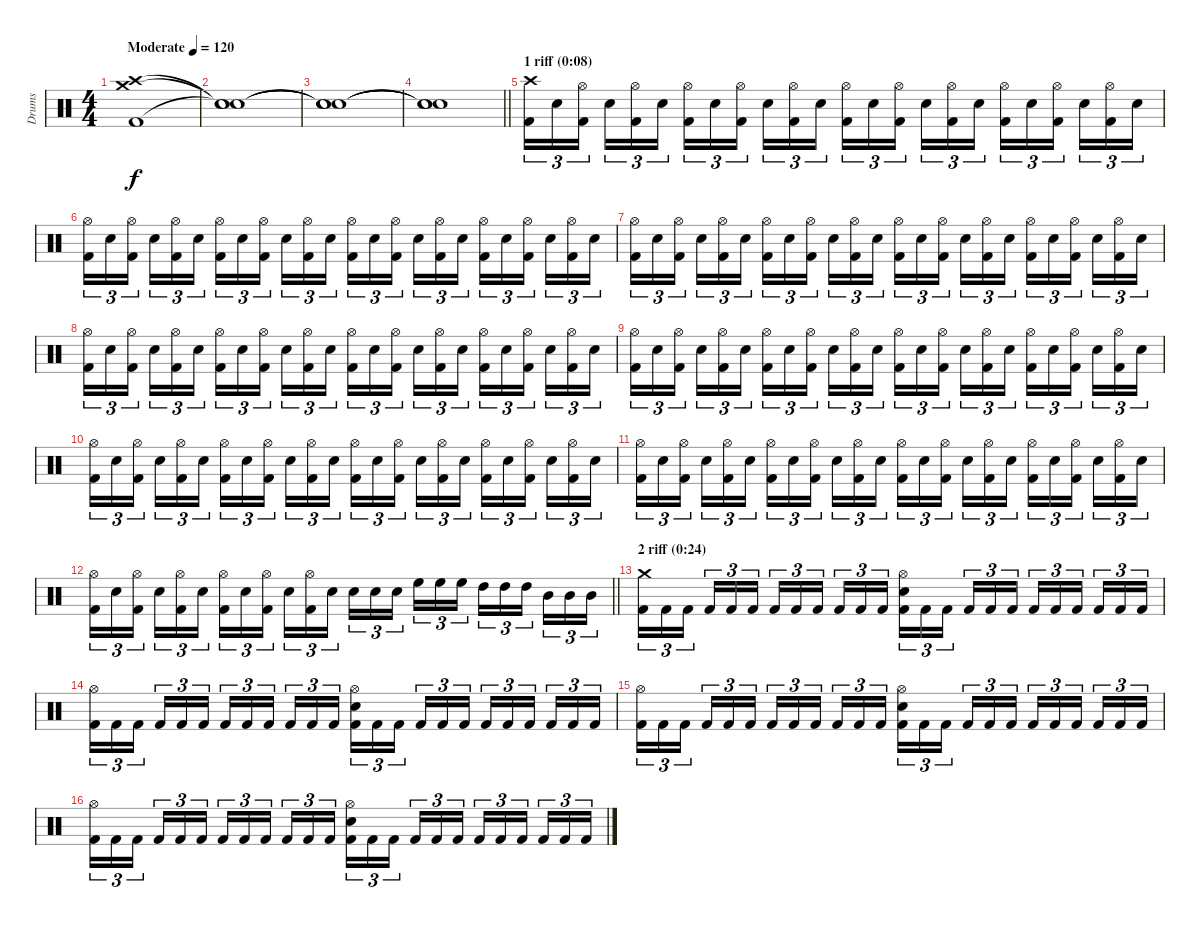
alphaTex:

\track ("Drums" "Drums") {instrument percussion}
\staff {score}
\articulation defaults
\ts (4 4)
\section ("" "")
\tempo (120 "Moderate")
\clef neutral
\ks c
("Crash high (hit)" "Crash medium (hit)" "Kick (hit) 2").1{dy f} |
("Snare (hit)"{t} "Snare (hit)"{t} "Snare (hit)"{t}).1 |
("Snare (hit)"{t} "Snare (hit)"{t} "Snare (hit)"{t}).1 |
\barLineRight lightlight
("Snare (hit)"{t} "Snare (hit)"{t} "Snare (hit)"{t}).1 |
\section ("" "1 riff (0:08)")
("Crash high (hit)" "Kick (hit) 2").16{tu (3 2)} "Snare (hit) 2".16{tu (3 2)} ("Hi-Hat (open)" "Kick (hit) 2").16{tu (3 2) beam splitsecondary} "Snare (hit) 2".16{tu (3 2)} ("Hi-Hat (open)" "Kick (hit) 2").16{tu (3 2)} "Snare (hit) 2".16{tu (3 2)} ("Hi-Hat (open)" "Kick (hit) 2").16{tu (3 2)} "Snare (hit) 2".16{tu (3 2)} ("Hi-Hat (open)" "Kick (hit) 2").16{tu (3 2) beam splitsecondary} "Snare (hit) 2".16{tu (3 2)} ("Hi-Hat (open)" "Kick (hit) 2").16{tu (3 2)} "Snare (hit) 2".16{tu (3 2)} ("Hi-Hat (open)" "Kick (hit) 2").16{tu (3 2)} "Snare (hit) 2".16{tu (3 2)} ("Hi-Hat (open)" "Kick (hit) 2").16{tu (3 2) beam splitsecondary} "Snare (hit) 2".16{tu (3 2)} ("Hi-Hat (open)" "Kick (hit) 2").16{tu (3 2)} "Snare (hit) 2".16{tu (3 2)} ("Hi-Hat (open)" "Kick (hit) 2").16{tu (3 2)} "Snare (hit) 2".16{tu (3 2)} ("Hi-Hat (open)" "Kick (hit) 2").16{tu (3 2) beam splitsecondary} "Snare (hit) 2".16{tu (3 2)} ("Hi-Hat (open)" "Kick (hit) 2").16{tu (3 2)} "Snare (hit) 2".16{tu (3 2)} |
("Hi-Hat (open)" "Kick (hit) 2").16{tu (3 2)} "Snare (hit) 2".16{tu (3 2)} ("Hi-Hat (open)" "Kick (hit) 2").16{tu (3 2) beam splitsecondary} "Snare (hit) 2".16{tu (3 2)} ("Hi-Hat (open)" "Kick (hit) 2").16{tu (3 2)} "Snare (hit) 2".16{tu (3 2)} ("Hi-Hat (open)" "Kick (hit) 2").16{tu (3 2)} "Snare (hit) 2".16{tu (3 2)} ("Hi-Hat (open)" "Kick (hit) 2").16{tu (3 2) beam splitsecondary} "Snare (hit) 2".16{tu (3 2)} ("Hi-Hat (open)" "Kick (hit) 2").16{tu (3 2)} "Snare (hit) 2".16{tu (3 2)} ("Hi-Hat (open)" "Kick (hit) 2").16{tu (3 2)} "Snare (hit) 2".16{tu (3 2)} ("Hi-Hat (open)" "Kick (hit) 2").16{tu (3 2) beam splitsecondary} "Snare (hit) 2".16{tu (3 2)} ("Hi-Hat (open)" "Kick (hit) 2").16{tu (3 2)} "Snare (hit) 2".16{tu (3 2)} ("Hi-Hat (open)" "Kick (hit) 2").16{tu (3 2)} "Snare (hit) 2".16{tu (3 2)} ("Hi-Hat (open)" "Kick (hit) 2").16{tu (3 2) beam splitsecondary} "Snare (hit) 2".16{tu (3 2)} ("Hi-Hat (open)" "Kick (hit) 2").16{tu (3 2)} "Snare (hit) 2".16{tu (3 2)} |
("Hi-Hat (open)" "Kick (hit) 2").16{tu (3 2)} "Snare (hit) 2".16{tu (3 2)} ("Hi-Hat (open)" "Kick (hit) 2").16{tu (3 2) beam splitsecondary} "Snare (hit) 2".16{tu (3 2)} ("Hi-Hat (open)" "Kick (hit) 2").16{tu (3 2)} "Snare (hit) 2".16{tu (3 2)} ("Hi-Hat (open)" "Kick (hit) 2").16{tu (3 2)} "Snare (hit) 2".16{tu (3 2)} ("Hi-Hat (open)" "Kick (hit) 2").16{tu (3 2) beam splitsecondary} "Snare (hit) 2".16{tu (3 2)} ("Hi-Hat (open)" "Kick (hit) 2").16{tu (3 2)} "Snare (hit) 2".16{tu (3 2)} ("Hi-Hat (open)" "Kick (hit) 2").16{tu (3 2)} "Snare (hit) 2".16{tu (3 2)} ("Hi-Hat (open)" "Kick (hit) 2").16{tu (3 2) beam splitsecondary} "Snare (hit) 2".16{tu (3 2)} ("Hi-Hat (open)" "Kick (hit) 2").16{tu (3 2)} "Snare (hit) 2".16{tu (3 2)} ("Hi-Hat (open)" "Kick (hit) 2").16{tu (3 2)} "Snare (hit) 2".16{tu (3 2)} ("Hi-Hat (open)" "Kick (hit) 2").16{tu (3 2) beam splitsecondary} "Snare (hit) 2".16{tu (3 2)} ("Hi-Hat (open)" "Kick (hit) 2").16{tu (3 2)} "Snare (hit) 2".16{tu (3 2)} |
("Hi-Hat (open)" "Kick (hit) 2").16{tu (3 2)} "Snare (hit) 2".16{tu (3 2)} ("Hi-Hat (open)" "Kick (hit) 2").16{tu (3 2) beam splitsecondary} "Snare (hit) 2".16{tu (3 2)} ("Hi-Hat (open)" "Kick (hit) 2").16{tu (3 2)} "Snare (hit) 2".16{tu (3 2)} ("Hi-Hat (open)" "Kick (hit) 2").16{tu (3 2)} "Snare (hit) 2".16{tu (3 2)} ("Hi-Hat (open)" "Kick (hit) 2").16{tu (3 2) beam splitsecondary} "Snare (hit) 2".16{tu (3 2)} ("Hi-Hat (open)" "Kick (hit) 2").16{tu (3 2)} "Snare (hit) 2".16{tu (3 2)} ("Hi-Hat (open)" "Kick (hit) 2").16{tu (3 2)} "Snare (hit) 2".16{tu (3 2)} ("Hi-Hat (open)" "Kick (hit) 2").16{tu (3 2) beam splitsecondary} "Snare (hit) 2".16{tu (3 2)} ("Hi-Hat (open)" "Kick (hit) 2").16{tu (3 2)} "Snare (hit) 2".16{tu (3 2)} ("Hi-Hat (open)" "Kick (hit) 2").16{tu (3 2)} "Snare (hit) 2".16{tu (3 2)} ("Hi-Hat (open)" "Kick (hit) 2").16{tu (3 2) beam splitsecondary} "Snare (hit) 2".16{tu (3 2)} ("Hi-Hat (open)" "Kick (hit) 2").16{tu (3 2)} "Snare (hit) 2".16{tu (3 2)} |
("Hi-Hat (open)" "Kick (hit) 2").16{tu (3 2)} "Snare (hit) 2".16{tu (3 2)} ("Hi-Hat (open)" "Kick (hit) 2").16{tu (3 2) beam splitsecondary} "Snare (hit) 2".16{tu (3 2)} ("Hi-Hat (open)" "Kick (hit) 2").16{tu (3 2)} "Snare (hit) 2".16{tu (3 2)} ("Hi-Hat (open)" "Kick (hit) 2").16{tu (3 2)} "Snare (hit) 2".16{tu (3 2)} ("Hi-Hat (open)" "Kick (hit) 2").16{tu (3 2) beam splitsecondary} "Snare (hit) 2".16{tu (3 2)} ("Hi-Hat (open)" "Kick (hit) 2").16{tu (3 2)} "Snare (hit) 2".16{tu (3 2)} ("Hi-Hat (open)" "Kick (hit) 2").16{tu (3 2)} "Snare (hit) 2".16{tu (3 2)} ("Hi-Hat (open)" "Kick (hit) 2").16{tu (3 2) beam splitsecondary} "Snare (hit) 2".16{tu (3 2)} ("Hi-Hat (open)" "Kick (hit) 2").16{tu (3 2)} "Snare (hit) 2".16{tu (3 2)} ("Hi-Hat (open)" "Kick (hit) 2").16{tu (3 2)} "Snare (hit) 2".16{tu (3 2)} ("Hi-Hat (open)" "Kick (hit) 2").16{tu (3 2) beam splitsecondary} "Snare (hit) 2".16{tu (3 2)} ("Hi-Hat (open)" "Kick (hit) 2").16{tu (3 2)} "Snare (hit) 2".16{tu (3 2)} |
("Hi-Hat (open)" "Kick (hit) 2").16{tu (3 2)} "Snare (hit) 2".16{tu (3 2)} ("Hi-Hat (open)" "Kick (hit) 2").16{tu (3 2) beam splitsecondary} "Snare (hit) 2".16{tu (3 2)} ("Hi-Hat (open)" "Kick (hit) 2").16{tu (3 2)} "Snare (hit) 2".16{tu (3 2)} ("Hi-Hat (open)" "Kick (hit) 2").16{tu (3 2)} "Snare (hit) 2".16{tu (3 2)} ("Hi-Hat (open)" "Kick (hit) 2").16{tu (3 2) beam splitsecondary} "Snare (hit) 2".16{tu (3 2)} ("Hi-Hat (open)" "Kick (hit) 2").16{tu (3 2)} "Snare (hit) 2".16{tu (3 2)} ("Hi-Hat (open)" "Kick (hit) 2").16{tu (3 2)} "Snare (hit) 2".16{tu (3 2)} ("Hi-Hat (open)" "Kick (hit) 2").16{tu (3 2) beam splitsecondary} "Snare (hit) 2".16{tu (3 2)} ("Hi-Hat (open)" "Kick (hit) 2").16{tu (3 2)} "Snare (hit) 2".16{tu (3 2)} ("Hi-Hat (open)" "Kick (hit) 2").16{tu (3 2)} "Snare (hit) 2".16{tu (3 2)} ("Hi-Hat (open)" "Kick (hit) 2").16{tu (3 2) beam splitsecondary} "Snare (hit) 2".16{tu (3 2)} ("Hi-Hat (open)" "Kick (hit) 2").16{tu (3 2)} "Snare (hit) 2".16{tu (3 2)} |
("Hi-Hat (open)" "Kick (hit) 2").16{tu (3 2)} "Snare (hit) 2".16{tu (3 2)} ("Hi-Hat (open)" "Kick (hit) 2").16{tu (3 2) beam splitsecondary} "Snare (hit) 2".16{tu (3 2)} ("Hi-Hat (open)" "Kick (hit) 2").16{tu (3 2)} "Snare (hit) 2".16{tu (3 2)} ("Hi-Hat (open)" "Kick (hit) 2").16{tu (3 2)} "Snare (hit) 2".16{tu (3 2)} ("Hi-Hat (open)" "Kick (hit) 2").16{tu (3 2) beam splitsecondary} "Snare (hit) 2".16{tu (3 2)} ("Hi-Hat (open)" "Kick (hit) 2").16{tu (3 2)} "Snare (hit) 2".16{tu (3 2)} ("Hi-Hat (open)" "Kick (hit) 2").16{tu (3 2)} "Snare (hit) 2".16{tu (3 2)} ("Hi-Hat (open)" "Kick (hit) 2").16{tu (3 2) beam splitsecondary} "Snare (hit) 2".16{tu (3 2)} ("Hi-Hat (open)" "Kick (hit) 2").16{tu (3 2)} "Snare (hit) 2".16{tu (3 2)} ("Hi-Hat (open)" "Kick (hit) 2").16{tu (3 2)} "Snare (hit) 2".16{tu (3 2)} ("Hi-Hat (open)" "Kick (hit) 2").16{tu (3 2) beam splitsecondary} "Snare (hit) 2".16{tu (3 2)} ("Hi-Hat (open)" "Kick (hit) 2").16{tu (3 2)} "Snare (hit) 2".16{tu (3 2)} |
\barLineRight lightlight
("Hi-Hat (open)" "Kick (hit) 2").16{tu (3 2)} "Snare (hit) 2".16{tu (3 2)} ("Hi-Hat (open)" "Kick (hit) 2").16{tu (3 2) beam splitsecondary} "Snare (hit) 2".16{tu (3 2)} ("Hi-Hat (open)" "Kick (hit) 2").16{tu (3 2)} "Snare (hit) 2".16{tu (3 2)} ("Hi-Hat (open)" "Kick (hit) 2").16{tu (3 2)} "Snare (hit) 2".16{tu (3 2)} ("Hi-Hat (open)" "Kick (hit) 2").16{tu (3 2) beam splitsecondary} "Snare (hit) 2".16{tu (3 2)} ("Hi-Hat (open)" "Kick (hit) 2").16{tu (3 2)} "Snare (hit) 2".16{tu (3 2)} "Snare (hit) 2".16{tu (3 2)} "Snare (hit) 2".16{tu (3 2)} "Snare (hit) 2".16{tu (3 2) beam splitsecondary} "High Floor Tom (hit)".16{tu (3 2)} "High Floor Tom (hit)".16{tu (3 2)} "High Floor Tom (hit)".16{tu (3 2)} "High Tom (hit)".16{tu (3 2)} "High Tom (hit)".16{tu (3 2)} "High Tom (hit)".16{tu (3 2) beam splitsecondary} "Mid Tom (hit)".16{tu (3 2)} "Mid Tom (hit)".16{tu (3 2)} "Mid Tom (hit)".16{tu (3 2)} |
\section ("" "2 riff (0:24)")
("Crash medium (hit)" "Kick (hit) 2").16{tu (3 2)} "Kick (hit) 2".16{tu (3 2)} "Kick (hit) 2".16{tu (3 2) beam splitsecondary} "Kick (hit) 2".16{tu (3 2)} "Kick (hit) 2".16{tu (3 2)} "Kick (hit) 2".16{tu (3 2)} "Kick (hit) 2".16{tu (3 2)} "Kick (hit) 2".16{tu (3 2)} "Kick (hit) 2".16{tu (3 2) beam splitsecondary} "Kick (hit) 2".16{tu (3 2)} "Kick (hit) 2".16{tu (3 2)} "Kick (hit) 2".16{tu (3 2)} ("Hi-Hat (open)" "Snare (hit) 2" "Kick (hit) 2").16{tu (3 2)} "Kick (hit) 2".16{tu (3 2)} "Kick (hit) 2".16{tu (3 2) beam splitsecondary} "Kick (hit) 2".16{tu (3 2)} "Kick (hit) 2".16{tu (3 2)} "Kick (hit) 2".16{tu (3 2)} "Kick (hit) 2".16{tu (3 2)} "Kick (hit) 2".16{tu (3 2)} "Kick (hit) 2".16{tu (3 2) beam splitsecondary} "Kick (hit) 2".16{tu (3 2)} "Kick (hit) 2".16{tu (3 2)} "Kick (hit) 2".16{tu (3 2)} |
("Hi-Hat (open)" "Kick (hit) 2").16{tu (3 2)} "Kick (hit) 2".16{tu (3 2)} "Kick (hit) 2".16{tu (3 2) beam splitsecondary} "Kick (hit) 2".16{tu (3 2)} "Kick (hit) 2".16{tu (3 2)} "Kick (hit) 2".16{tu (3 2)} "Kick (hit) 2".16{tu (3 2)} "Kick (hit) 2".16{tu (3 2)} "Kick (hit) 2".16{tu (3 2) beam splitsecondary} "Kick (hit) 2".16{tu (3 2)} "Kick (hit) 2".16{tu (3 2)} "Kick (hit) 2".16{tu (3 2)} ("Hi-Hat (open)" "Snare (hit) 2" "Kick (hit) 2").16{tu (3 2)} "Kick (hit) 2".16{tu (3 2)} "Kick (hit) 2".16{tu (3 2) beam splitsecondary} "Kick (hit) 2".16{tu (3 2)} "Kick (hit) 2".16{tu (3 2)} "Kick (hit) 2".16{tu (3 2)} "Kick (hit) 2".16{tu (3 2)} "Kick (hit) 2".16{tu (3 2)} "Kick (hit) 2".16{tu (3 2) beam splitsecondary} "Kick (hit) 2".16{tu (3 2)} "Kick (hit) 2".16{tu (3 2)} "Kick (hit) 2".16{tu (3 2)} |
("Hi-Hat (open)" "Kick (hit) 2").16{tu (3 2)} "Kick (hit) 2".16{tu (3 2)} "Kick (hit) 2".16{tu (3 2) beam splitsecondary} "Kick (hit) 2".16{tu (3 2)} "Kick (hit) 2".16{tu (3 2)} "Kick (hit) 2".16{tu (3 2)} "Kick (hit) 2".16{tu (3 2)} "Kick (hit) 2".16{tu (3 2)} "Kick (hit) 2".16{tu (3 2) beam splitsecondary} "Kick (hit) 2".16{tu (3 2)} "Kick (hit) 2".16{tu (3 2)} "Kick (hit) 2".16{tu (3 2)} ("Hi-Hat (open)" "Snare (hit) 2" "Kick (hit) 2").16{tu (3 2)} "Kick (hit) 2".16{tu (3 2)} "Kick (hit) 2".16{tu (3 2) beam splitsecondary} "Kick (hit) 2".16{tu (3 2)} "Kick (hit) 2".16{tu (3 2)} "Kick (hit) 2".16{tu (3 2)} "Kick (hit) 2".16{tu (3 2)} "Kick (hit) 2".16{tu (3 2)} "Kick (hit) 2".16{tu (3 2) beam splitsecondary} "Kick (hit) 2".16{tu (3 2)} "Kick (hit) 2".16{tu (3 2)} "Kick (hit) 2".16{tu (3 2)} |
("Hi-Hat (open)" "Kick (hit) 2").16{tu (3 2)} "Kick (hit) 2".16{tu (3 2)} "Kick (hit) 2".16{tu (3 2) beam splitsecondary} "Kick (hit) 2".16{tu (3 2)} "Kick (hit) 2".16{tu (3 2)} "Kick (hit) 2".16{tu (3 2)} "Kick (hit) 2".16{tu (3 2)} "Kick (hit) 2".16{tu (3 2)} "Kick (hit) 2".16{tu (3 2) beam splitsecondary} "Kick (hit) 2".16{tu (3 2)} "Kick (hit) 2".16{tu (3 2)} "Kick (hit) 2".16{tu (3 2)} ("Hi-Hat (open)" "Snare (hit) 2" "Kick (hit) 2").16{tu (3 2)} "Kick (hit) 2".16{tu (3 2)} "Kick (hit) 2".16{tu (3 2) beam splitsecondary} "Kick (hit) 2".16{tu (3 2)} "Kick (hit) 2".16{tu (3 2)} "Kick (hit) 2".16{tu (3 2)} "Kick (hit) 2".16{tu (3 2)} "Kick (hit) 2".16{tu (3 2)} "Kick (hit) 2".16{tu (3 2) beam splitsecondary} "Kick (hit) 2".16{tu (3 2)} "Kick (hit) 2".16{tu (3 2)} "Kick (hit) 2".16{tu (3 2)}
